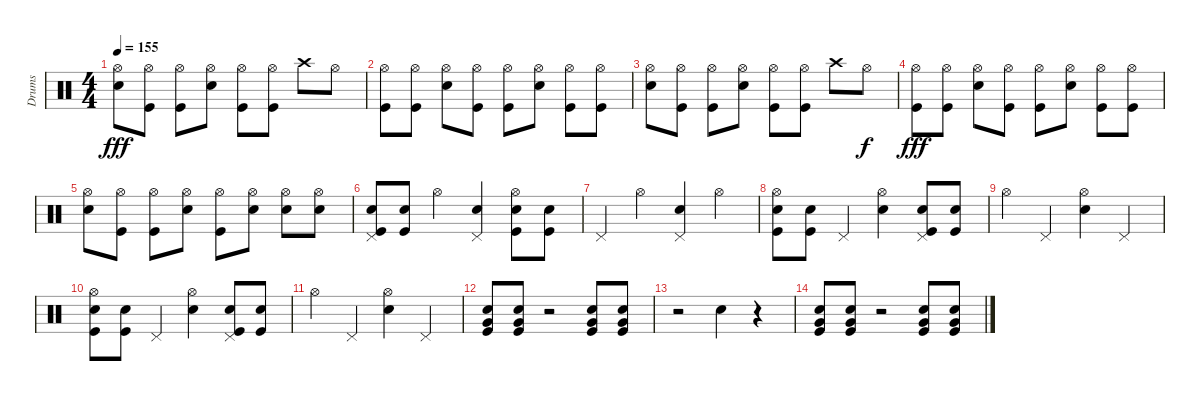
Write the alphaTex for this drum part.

\track ("Drums               " "Drums     ") {instrument percussion}
\staff {score}
\articulation defaults
\ts (4 4)
\tempo 155
\clef neutral
\ks c
("Hi-Hat (open)" "Snare (hit) 2").8{dy fff} ("Hi-Hat (open)" "Kick (hit)").8 ("Hi-Hat (open)" "Kick (hit)").8 ("Hi-Hat (open)" "Snare (hit) 2").8 ("Hi-Hat (open)" "Kick (hit)").8 ("Hi-Hat (open)" "Kick (hit)").8 "Crash high (hit)".8 "Hi-Hat (open)".8 |
("Kick (hit)" "Hi-Hat (open)").8 ("Kick (hit)" "Hi-Hat (open)").8 ("Hi-Hat (open)" "Snare (hit) 2").8 ("Hi-Hat (open)" "Kick (hit)").8 ("Hi-Hat (open)" "Kick (hit)").8 ("Hi-Hat (open)" "Snare (hit) 2").8 ("Hi-Hat (open)" "Kick (hit)").8 ("Hi-Hat (open)" "Kick (hit)").8 |
("Hi-Hat (open)" "Snare (hit) 2").8 ("Hi-Hat (open)" "Kick (hit)").8 ("Hi-Hat (open)" "Kick (hit)").8 ("Hi-Hat (open)" "Snare (hit) 2").8 ("Hi-Hat (open)" "Kick (hit)").8 ("Hi-Hat (open)" "Kick (hit)").8 "Crash high (hit)".8 "Hi-Hat (open)".8{dy f} |
("Kick (hit)" "Hi-Hat (open)").8{dy fff} ("Kick (hit)" "Hi-Hat (open)").8 ("Hi-Hat (open)" "Snare (hit) 2").8 ("Hi-Hat (open)" "Kick (hit)").8 ("Hi-Hat (open)" "Kick (hit)").8 ("Hi-Hat (open)" "Snare (hit) 2").8 ("Hi-Hat (open)" "Kick (hit)").8 ("Hi-Hat (open)" "Kick (hit)").8 |
("Hi-Hat (open)" "Snare (hit) 2").8 ("Hi-Hat (open)" "Kick (hit)").8 ("Hi-Hat (open)" "Kick (hit)").8 ("Hi-Hat (open)" "Snare (hit) 2").8 ("Hi-Hat (open)" "Kick (hit)").8 ("Hi-Hat (open)" "Snare (hit) 2").8 ("Hi-Hat (open)" "Snare (hit) 2").8 ("Hi-Hat (open)" "Snare (hit) 2").8 |
("Kick (hit)" "Pedal Hi-Hat (hit)" "Snare (hit) 2").8 ("Kick (hit)" "Snare (hit) 2").8 "Hi-Hat (open)".4 ("Snare (hit) 2" "Pedal Hi-Hat (hit)").4 ("Kick (hit)" "Hi-Hat (open)" "Snare (hit) 2").8 ("Kick (hit)" "Snare (hit) 2").8 |
"Pedal Hi-Hat (hit)".4 "Hi-Hat (open)".4 ("Pedal Hi-Hat (hit)" "Snare (hit) 2").4 "Hi-Hat (open)".4 |
("Hi-Hat (open)" "Kick (hit)" "Snare (hit) 2").8 ("Kick (hit)" "Snare (hit) 2").8 "Pedal Hi-Hat (hit)".4 ("Hi-Hat (open)" "Snare (hit) 2").4 ("Pedal Hi-Hat (hit)" "Snare (hit) 2" "Kick (hit)").8 ("Snare (hit) 2" "Kick (hit)").8 |
"Hi-Hat (open)".4 "Pedal Hi-Hat (hit)".4 ("Hi-Hat (open)" "Snare (hit) 2").4 "Pedal Hi-Hat (hit)".4 |
("Hi-Hat (open)" "Kick (hit)" "Snare (hit) 2").8 ("Kick (hit)" "Snare (hit) 2").8 "Pedal Hi-Hat (hit)".4 ("Hi-Hat (open)" "Snare (hit) 2").4 ("Pedal Hi-Hat (hit)" "Snare (hit) 2" "Kick (hit)").8 ("Snare (hit) 2" "Kick (hit)").8 |
"Hi-Hat (open)".4 "Pedal Hi-Hat (hit)".4 ("Hi-Hat (open)" "Snare (hit) 2").4 "Pedal Hi-Hat (hit)".4 |
("Kick (hit)" "Snare (hit) 2" "Very Low Tom (hit)").8 ("Kick (hit)" "Snare (hit) 2" "Very Low Tom (hit)").8 r.2 ("Snare (hit) 2" "Kick (hit)" "Very Low Tom (hit)").8 ("Snare (hit) 2" "Kick (hit)" "Very Low Tom (hit)").8 |
r.2 "Snare (hit) 2".4 r.4 |
("Kick (hit)" "Snare (hit) 2" "Very Low Tom (hit)").8 ("Kick (hit)" "Snare (hit) 2" "Very Low Tom (hit)").8 r.2 ("Snare (hit) 2" "Kick (hit)" "Very Low Tom (hit)").8 ("Snare (hit) 2" "Kick (hit)" "Very Low Tom (hit)").8
